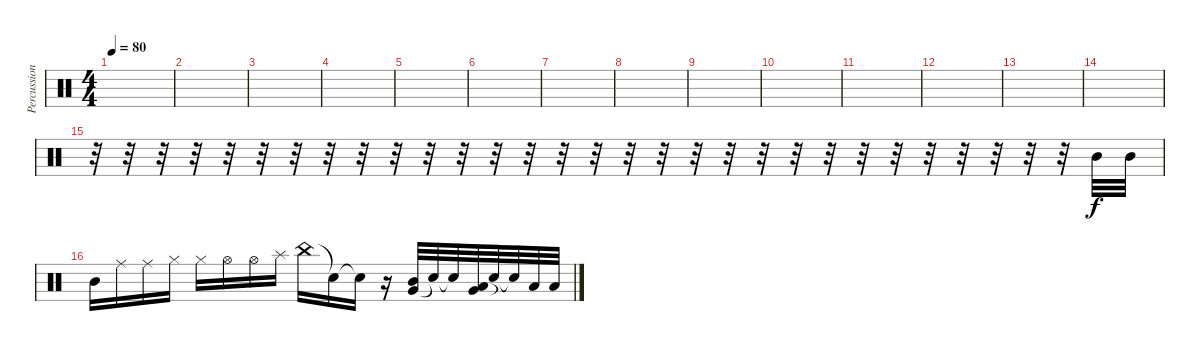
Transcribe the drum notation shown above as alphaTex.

\track ("Percussion" "Percussion") {instrument percussion}
\staff {score}
\articulation defaults
\ts (4 4)
\tempo 80
\clef neutral
\ks c
|
|
|
|
|
|
|
|
|
|
|
|
|
|
r.32 r.32 r.32 r.32 r.32 r.32 r.32 r.32 r.32 r.32 r.32 r.32 r.32 r.32 r.32 r.32 r.32 r.32 r.32 r.32 r.32 r.32 r.32 r.32 r.32 r.32 r.32 r.32 r.32 r.32 "Mid Tom (hit)".32 "Mid Tom (hit)".32 |
"Mid Tom (hit)".16{dy f} "Ride (middle)".16 "Ride (middle)".16 "Hi-Hat (closed)".16 "Hi-Hat (closed)".16 "Hi-Hat (open)".16 "Hi-Hat (open)".16 "Splash (hit)".16 "China (hit)".16 "Snare (hit)"{t}.16 "Snare (hit)"{t}.16 r.16 ("Very Low Tom (hit)" "Mid Tom (hit)").32{bd 480} "Snare (hit)"{t}.32 "Snare (hit)"{t}.32 ("Very Low Tom (hit)" "Low Tom (hit)").32{bd 480} "Snare (hit)"{t}.32 "Snare (hit)"{t}.32 "Low Floor Tom (hit)".32 "Low Floor Tom (hit)".32
